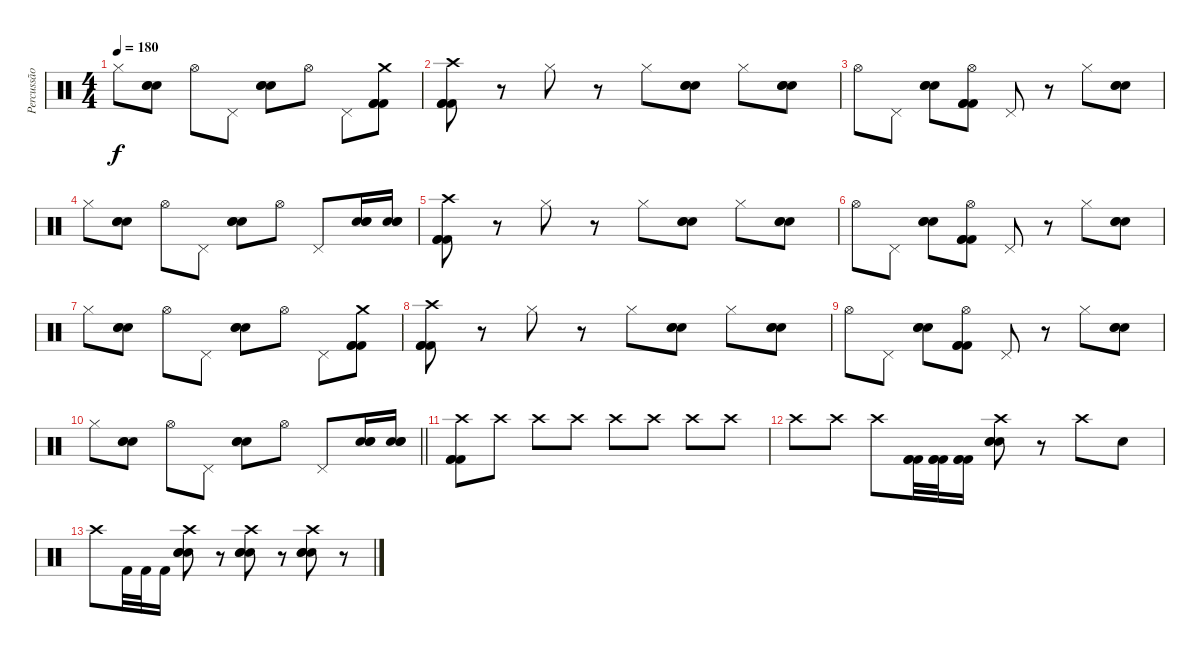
\track ("Percussão" "Percussão") {instrument percussion}
\staff {score}
\articulation defaults
\ts (4 4)
\tempo 180
\clef neutral
\ks c "Hi-Hat (closed)".8{dy f}
("Electric Snare (hit)" "Electric Snare (hit)" "Electric Snare (hit)").8 "Hi-Hat (open)".8 "Pedal Hi-Hat (hit)".8 ("Electric Snare (hit)" "Electric Snare (hit)" "Electric Snare (hit)").8 "Hi-Hat (open)".8 "Pedal Hi-Hat (hit)".8 ("Crash medium (hit)" "Kick (hit) 2" "Kick (hit) 2" "Kick (hit) 2").8 |
("Crash high (hit)" "Kick (hit) 2" "Kick (hit) 2" "Kick (hit) 2").8 r.8 "Hi-Hat (closed)".8 r.8 "Hi-Hat (closed)".8 ("Electric Snare (hit)" "Electric Snare (hit)" "Electric Snare (hit)").8 "Hi-Hat (closed)".8 ("Electric Snare (hit)" "Electric Snare (hit)" "Electric Snare (hit)").8 |
"Hi-Hat (open)".8 "Pedal Hi-Hat (hit)".8 ("Electric Snare (hit)" "Electric Snare (hit)" "Electric Snare (hit)").8 ("Hi-Hat (open)" "Kick (hit) 2" "Kick (hit) 2" "Kick (hit) 2").8 "Pedal Hi-Hat (hit)".8 r.8 "Hi-Hat (closed)".8 ("Electric Snare (hit)" "Electric Snare (hit)" "Electric Snare (hit)").8 |
"Hi-Hat (closed)".8 ("Electric Snare (hit)" "Electric Snare (hit)" "Electric Snare (hit)").8 "Hi-Hat (open)".8 "Pedal Hi-Hat (hit)".8 ("Electric Snare (hit)" "Electric Snare (hit)" "Electric Snare (hit)").8 "Hi-Hat (open)".8 "Pedal Hi-Hat (hit)".8 ("Electric Snare (hit)" "Electric Snare (hit)" "Electric Snare (hit)").16 ("Electric Snare (hit)" "Electric Snare (hit)" "Electric Snare (hit)").16 |
("Crash high (hit)" "Kick (hit) 2" "Kick (hit) 2" "Kick (hit) 2").8 r.8 "Hi-Hat (closed)".8 r.8 "Hi-Hat (closed)".8 ("Electric Snare (hit)" "Electric Snare (hit)" "Electric Snare (hit)").8 "Hi-Hat (closed)".8 ("Electric Snare (hit)" "Electric Snare (hit)" "Electric Snare (hit)").8 |
"Hi-Hat (open)".8 "Pedal Hi-Hat (hit)".8 ("Electric Snare (hit)" "Electric Snare (hit)" "Electric Snare (hit)").8 ("Hi-Hat (open)" "Kick (hit) 2" "Kick (hit) 2" "Kick (hit) 2").8 "Pedal Hi-Hat (hit)".8 r.8 "Hi-Hat (closed)".8 ("Electric Snare (hit)" "Electric Snare (hit)" "Electric Snare (hit)").8 |
"Hi-Hat (closed)".8 ("Electric Snare (hit)" "Electric Snare (hit)" "Electric Snare (hit)").8 "Hi-Hat (open)".8 "Pedal Hi-Hat (hit)".8 ("Electric Snare (hit)" "Electric Snare (hit)" "Electric Snare (hit)").8 "Hi-Hat (open)".8 "Pedal Hi-Hat (hit)".8 ("Crash medium (hit)" "Kick (hit) 2" "Kick (hit) 2" "Kick (hit) 2").8 |
("Crash high (hit)" "Kick (hit) 2" "Kick (hit) 2" "Kick (hit) 2").8 r.8 "Hi-Hat (closed)".8 r.8 "Hi-Hat (closed)".8 ("Electric Snare (hit)" "Electric Snare (hit)" "Electric Snare (hit)").8 "Hi-Hat (closed)".8 ("Electric Snare (hit)" "Electric Snare (hit)" "Electric Snare (hit)").8 |
"Hi-Hat (open)".8 "Pedal Hi-Hat (hit)".8 ("Electric Snare (hit)" "Electric Snare (hit)" "Electric Snare (hit)").8 ("Hi-Hat (open)" "Kick (hit) 2" "Kick (hit) 2" "Kick (hit) 2").8 "Pedal Hi-Hat (hit)".8 r.8 "Hi-Hat (closed)".8 ("Electric Snare (hit)" "Electric Snare (hit)" "Electric Snare (hit)").8 |
\barLineRight lightlight "Hi-Hat (closed)".8
("Electric Snare (hit)" "Electric Snare (hit)" "Electric Snare (hit)").8 "Hi-Hat (open)".8 "Pedal Hi-Hat (hit)".8 ("Electric Snare (hit)" "Electric Snare (hit)" "Electric Snare (hit)").8 "Hi-Hat (open)".8 "Pedal Hi-Hat (hit)".8 ("Electric Snare (hit)" "Electric Snare (hit)" "Electric Snare (hit)").16 ("Electric Snare (hit)" "Electric Snare (hit)" "Electric Snare (hit)").16 |
\section ("" "")
("Crash high (hit)" "Kick (hit) 2" "Kick (hit) 2" "Kick (hit) 2").8 "Crash high (hit)".8 "Crash high (hit)".8 "Crash high (hit)".8 "Crash high (hit)".8 "Crash high (hit)".8 "Crash high (hit)".8 "Crash high (hit)".8 |
"Crash high (hit)".8 "Crash high (hit)".8 "Crash high (hit)".8 ("Kick (hit) 2" "Kick (hit) 2" "Kick (hit) 2").32 ("Kick (hit) 2" "Kick (hit) 2" "Kick (hit) 2").32 ("Kick (hit) 2" "Kick (hit) 2" "Kick (hit) 2").16 ("Crash high (hit)" "Electric Snare (hit)" "Electric Snare (hit)" "Electric Snare (hit)").8 r.8 "Crash high (hit)".8 "Electric Snare (hit)".8 |
"Crash high (hit)".8 "Kick (hit) 2".32 "Kick (hit) 2".32 "Kick (hit) 2".16 ("Crash high (hit)" "Electric Snare (hit)" "Electric Snare (hit)" "Electric Snare (hit)").8 r.8 ("Crash high (hit)" "Electric Snare (hit)" "Electric Snare (hit)" "Electric Snare (hit)").8 r.8 ("Crash high (hit)" "Electric Snare (hit)" "Electric Snare (hit)" "Electric Snare (hit)").8 r.8
